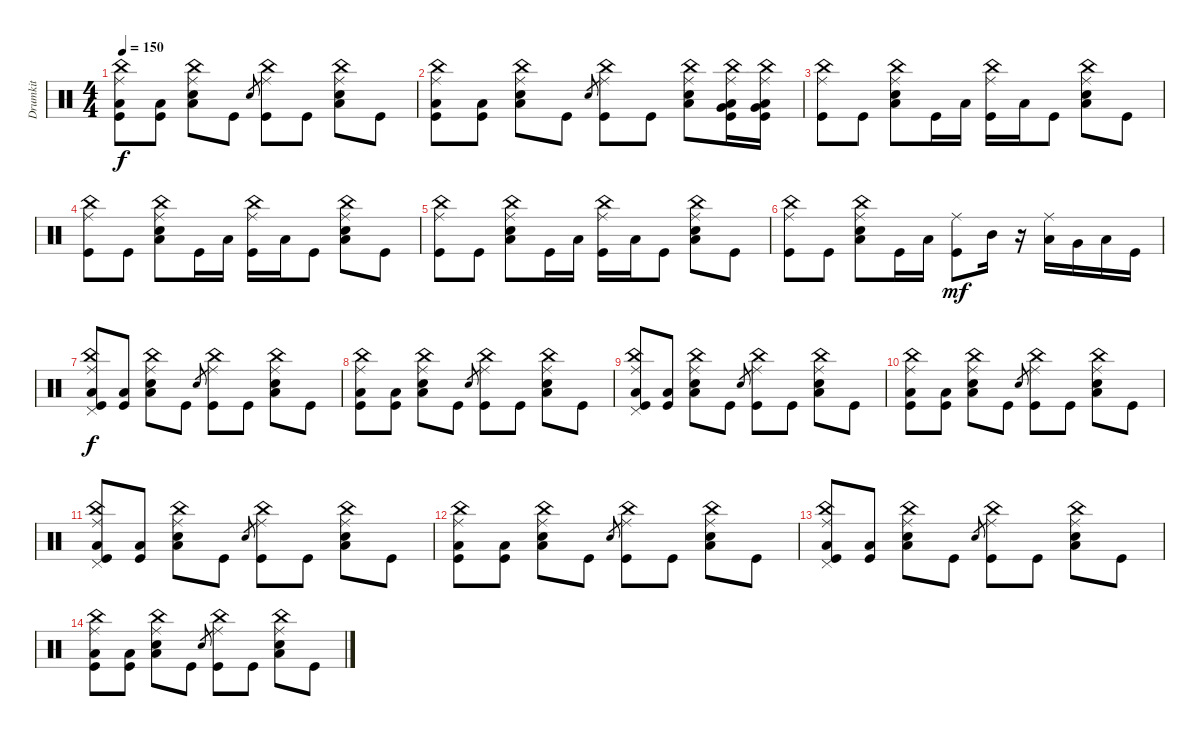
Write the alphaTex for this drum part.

\track ("Drumkit" "Drumkit") {instrument percussion}
\staff {score}
\articulation defaults
\ts (4 4)
\tempo 150
\clef neutral
\ks c
("Kick (hit)" "Ride (middle)" "Low Floor Tom (hit)" "China (hit)").8{dy f} ("Kick (hit)" "Low Floor Tom (hit)").8 ("Snare (hit) 2" "Ride (middle)" "Low Floor Tom (hit)" "China (hit)").8 "Kick (hit)".8 "Snare (hit)".8{gr} ("Kick (hit)" "Ride (middle)" "China (hit)").8 "Kick (hit)".8 ("Snare (hit) 2" "Ride (middle)" "Low Floor Tom (hit)" "China (hit)").8 "Kick (hit)".8 |
("Kick (hit)" "Ride (middle)" "Low Floor Tom (hit)" "China (hit)").8 ("Kick (hit)" "Low Floor Tom (hit)").8 ("Snare (hit) 2" "Ride (middle)" "Low Floor Tom (hit)" "China (hit)").8 "Kick (hit)".8 "Snare (hit)".8{gr} ("Kick (hit)" "Ride (middle)" "China (hit)").8 "Kick (hit)".8 ("Snare (hit) 2" "Ride (middle)" "Low Floor Tom (hit)" "China (hit)").8 ("Kick (hit)" "Very Low Tom (hit)" "Low Tom (hit)" "Ride (middle)" "China (hit)").16 ("Kick (hit)" "Very Low Tom (hit)" "Low Tom (hit)" "Ride (middle)" "China (hit)").16 |
("Kick (hit)" "China (hit)" "Ride (middle)").8 "Kick (hit)".8 ("Low Floor Tom (hit)" "Snare (hit) 2" "Ride (middle)" "China (hit)").8 "Kick (hit)".16 "Low Floor Tom (hit)".16 ("Kick (hit)" "Ride (middle)" "China (hit)").16 "Low Floor Tom (hit)".16 "Kick (hit)".8 ("Snare (hit) 2" "Ride (middle)" "Low Floor Tom (hit)" "China (hit)").8 "Kick (hit)".8 |
("Kick (hit)" "China (hit)" "Ride (middle)").8 "Kick (hit)".8 ("Low Floor Tom (hit)" "Snare (hit) 2" "Ride (middle)" "China (hit)").8 "Kick (hit)".16 "Low Floor Tom (hit)".16 ("Kick (hit)" "Ride (middle)" "China (hit)").16 "Low Floor Tom (hit)".16 "Kick (hit)".8 ("Snare (hit) 2" "Ride (middle)" "Low Floor Tom (hit)" "China (hit)").8 "Kick (hit)".8 |
("Kick (hit)" "China (hit)" "Ride (middle)").8 "Kick (hit)".8 ("Low Floor Tom (hit)" "Snare (hit) 2" "Ride (middle)" "China (hit)").8 "Kick (hit)".16 "Low Floor Tom (hit)".16 ("Kick (hit)" "Ride (middle)" "China (hit)").16 "Low Floor Tom (hit)".16 "Kick (hit)".8 ("Snare (hit) 2" "Ride (middle)" "Low Floor Tom (hit)" "China (hit)").8 "Kick (hit)".8 |
("Kick (hit)" "China (hit)" "Ride (middle)").8 "Kick (hit)".8 ("Low Floor Tom (hit)" "Snare (hit) 2" "Ride (middle)" "China (hit)").8 "Kick (hit)".16 "Low Floor Tom (hit)".16 ("Kick (hit)" "Ride (middle)").8{dy mf} "Mid Tom (hit)".16 r.16 ("Low Tom (hit)" "Ride (middle)").16 "Very Low Tom (hit)".16 "Low Floor Tom (hit)".16 "Kick (hit)".16 |
("Kick (hit)" "Ride (middle)" "Low Floor Tom (hit)" "Pedal Hi-Hat (hit)" "China (hit)").8{dy f} ("Kick (hit)" "Low Floor Tom (hit)").8 ("Snare (hit) 2" "Ride (middle)" "Low Floor Tom (hit)" "China (hit)").8 "Kick (hit)".8 "Snare (hit)".8{gr} ("Kick (hit)" "Ride (middle)" "China (hit)").8 "Kick (hit)".8 ("Snare (hit) 2" "Ride (middle)" "Low Floor Tom (hit)" "China (hit)").8 "Kick (hit)".8 |
("Kick (hit)" "Ride (middle)" "Low Floor Tom (hit)" "China (hit)").8 ("Kick (hit)" "Low Floor Tom (hit)").8 ("Snare (hit) 2" "Ride (middle)" "Low Floor Tom (hit)" "China (hit)").8 "Kick (hit)".8 "Snare (hit)".8{gr} ("Kick (hit)" "Ride (middle)" "China (hit)").8 "Kick (hit)".8 ("Snare (hit) 2" "Ride (middle)" "Low Floor Tom (hit)" "China (hit)").8 "Kick (hit)".8 |
("Kick (hit)" "Ride (middle)" "Low Floor Tom (hit)" "Pedal Hi-Hat (hit)" "China (hit)").8 ("Kick (hit)" "Low Floor Tom (hit)").8 ("Snare (hit) 2" "Ride (middle)" "Low Floor Tom (hit)" "China (hit)").8 "Kick (hit)".8 "Snare (hit)".8{gr} ("Kick (hit)" "Ride (middle)" "China (hit)").8 "Kick (hit)".8 ("Snare (hit) 2" "Ride (middle)" "Low Floor Tom (hit)" "China (hit)").8 "Kick (hit)".8 |
("Kick (hit)" "Ride (middle)" "Low Floor Tom (hit)" "China (hit)").8 ("Kick (hit)" "Low Floor Tom (hit)").8 ("Snare (hit) 2" "Ride (middle)" "Low Floor Tom (hit)" "China (hit)").8 "Kick (hit)".8 "Snare (hit)".8{gr} ("Kick (hit)" "Ride (middle)" "China (hit)").8 "Kick (hit)".8 ("Snare (hit) 2" "Ride (middle)" "Low Floor Tom (hit)" "China (hit)").8 "Kick (hit)".8 |
("Kick (hit)" "Ride (middle)" "Low Floor Tom (hit)" "Pedal Hi-Hat (hit)" "China (hit)").8 ("Kick (hit)" "Low Floor Tom (hit)").8 ("Snare (hit) 2" "Ride (middle)" "Low Floor Tom (hit)" "China (hit)").8 "Kick (hit)".8 "Snare (hit)".8{gr} ("Kick (hit)" "Ride (middle)" "China (hit)").8 "Kick (hit)".8 ("Snare (hit) 2" "Ride (middle)" "Low Floor Tom (hit)" "China (hit)").8 "Kick (hit)".8 |
("Kick (hit)" "Ride (middle)" "Low Floor Tom (hit)" "China (hit)").8 ("Kick (hit)" "Low Floor Tom (hit)").8 ("Snare (hit) 2" "Ride (middle)" "Low Floor Tom (hit)" "China (hit)").8 "Kick (hit)".8 "Snare (hit)".8{gr} ("Kick (hit)" "Ride (middle)" "China (hit)").8 "Kick (hit)".8 ("Snare (hit) 2" "Ride (middle)" "Low Floor Tom (hit)" "China (hit)").8 "Kick (hit)".8 |
("Kick (hit)" "Ride (middle)" "Low Floor Tom (hit)" "Pedal Hi-Hat (hit)" "China (hit)").8 ("Kick (hit)" "Low Floor Tom (hit)").8 ("Snare (hit) 2" "Ride (middle)" "Low Floor Tom (hit)" "China (hit)").8 "Kick (hit)".8 "Snare (hit)".8{gr} ("Kick (hit)" "Ride (middle)" "China (hit)").8 "Kick (hit)".8 ("Snare (hit) 2" "Ride (middle)" "Low Floor Tom (hit)" "China (hit)").8 "Kick (hit)".8 |
("Kick (hit)" "Ride (middle)" "Low Floor Tom (hit)" "China (hit)").8 ("Kick (hit)" "Low Floor Tom (hit)").8 ("Snare (hit) 2" "Ride (middle)" "Low Floor Tom (hit)" "China (hit)").8 "Kick (hit)".8 "Snare (hit)".8{gr} ("Kick (hit)" "Ride (middle)" "China (hit)").8 "Kick (hit)".8 ("Snare (hit) 2" "Ride (middle)" "Low Floor Tom (hit)" "China (hit)").8 "Kick (hit)".8
